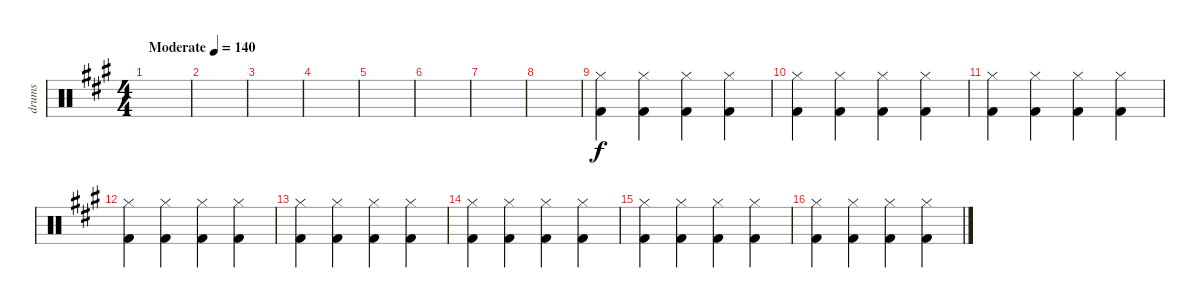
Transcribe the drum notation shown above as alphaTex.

\track ("drums" "drums") {instrument percussion}
\staff {score}
\articulation defaults
\ts (4 4)
\tempo (140 "Moderate")
\clef neutral
\ks f#minor
|
|
|
|
|
|
|
|
("Hi-Hat (closed)" "Kick (hit) 2").4 ("Hi-Hat (closed)" "Kick (hit) 2").4 ("Hi-Hat (closed)" "Kick (hit) 2").4 ("Hi-Hat (closed)" "Kick (hit) 2").4 |
("Hi-Hat (closed)" "Kick (hit) 2").4 ("Hi-Hat (closed)" "Kick (hit) 2").4 ("Hi-Hat (closed)" "Kick (hit) 2").4 ("Hi-Hat (closed)" "Kick (hit) 2").4 |
("Hi-Hat (closed)" "Kick (hit) 2").4 ("Hi-Hat (closed)" "Kick (hit) 2").4 ("Hi-Hat (closed)" "Kick (hit) 2").4 ("Hi-Hat (closed)" "Kick (hit) 2").4 |
("Hi-Hat (closed)" "Kick (hit) 2").4 ("Hi-Hat (closed)" "Kick (hit) 2").4 ("Hi-Hat (closed)" "Kick (hit) 2").4 ("Hi-Hat (closed)" "Kick (hit) 2").4 |
("Hi-Hat (closed)" "Kick (hit) 2").4 ("Hi-Hat (closed)" "Kick (hit) 2").4 ("Hi-Hat (closed)" "Kick (hit) 2").4 ("Hi-Hat (closed)" "Kick (hit) 2").4 |
("Hi-Hat (closed)" "Kick (hit) 2").4 ("Hi-Hat (closed)" "Kick (hit) 2").4 ("Hi-Hat (closed)" "Kick (hit) 2").4 ("Hi-Hat (closed)" "Kick (hit) 2").4 |
("Hi-Hat (closed)" "Kick (hit) 2").4 ("Hi-Hat (closed)" "Kick (hit) 2").4 ("Hi-Hat (closed)" "Kick (hit) 2").4 ("Hi-Hat (closed)" "Kick (hit) 2").4 |
("Hi-Hat (closed)" "Kick (hit) 2").4 ("Hi-Hat (closed)" "Kick (hit) 2").4 ("Hi-Hat (closed)" "Kick (hit) 2").4 ("Hi-Hat (closed)" "Kick (hit) 2").4
